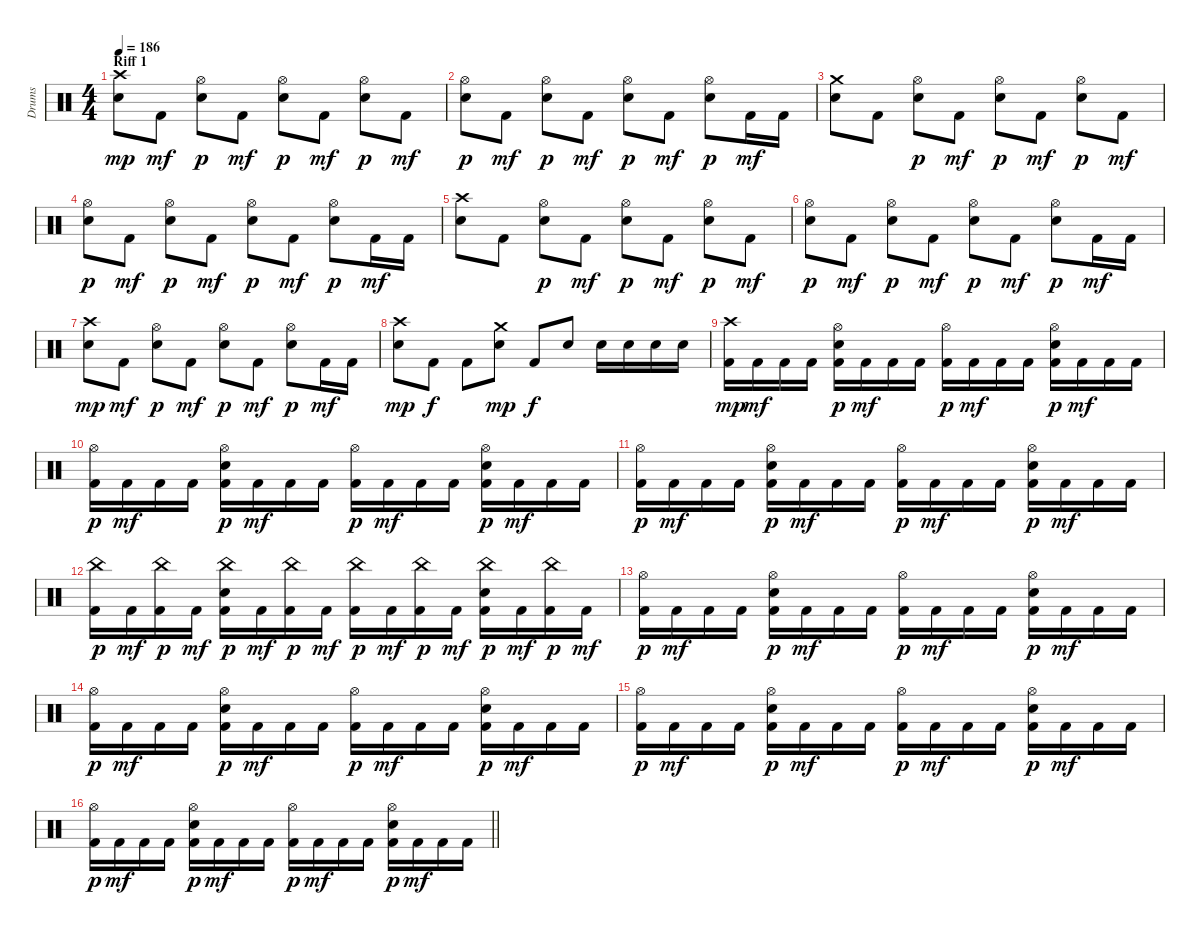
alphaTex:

\track ("Drums" "Drums") {instrument percussion}
\staff {score}
\articulation defaults
\ts (4 4)
\section ("" "Riff 1")
\tempo 186
\clef neutral
\ks c
("Crash high (hit)" "Snare (hit) 2").8{dy mp} "Kick (hit) 2".8{dy mf} ("Hi-Hat (open)" "Snare (hit) 2").8{dy p} "Kick (hit) 2".8{dy mf} ("Hi-Hat (open)" "Snare (hit) 2").8{dy p} "Kick (hit) 2".8{dy mf} ("Hi-Hat (open)" "Snare (hit) 2").8{dy p} "Kick (hit) 2".8{dy mf} |
("Hi-Hat (open)" "Snare (hit) 2").8{dy p} "Kick (hit) 2".8{dy mf} ("Hi-Hat (open)" "Snare (hit) 2").8{dy p} "Kick (hit) 2".8{dy mf} ("Hi-Hat (open)" "Snare (hit) 2").8{dy p} "Kick (hit) 2".8{dy mf} ("Hi-Hat (open)" "Snare (hit) 2").8{dy p} "Kick (hit) 2".16{dy mf} "Kick (hit) 2".16 |
("Crash medium (hit)" "Snare (hit) 2").8 "Kick (hit) 2".8 ("Hi-Hat (open)" "Snare (hit) 2").8{dy p} "Kick (hit) 2".8{dy mf} ("Hi-Hat (open)" "Snare (hit) 2").8{dy p} "Kick (hit) 2".8{dy mf} ("Hi-Hat (open)" "Snare (hit) 2").8{dy p} "Kick (hit) 2".8{dy mf} |
("Hi-Hat (open)" "Snare (hit) 2").8{dy p} "Kick (hit) 2".8{dy mf} ("Hi-Hat (open)" "Snare (hit) 2").8{dy p} "Kick (hit) 2".8{dy mf} ("Hi-Hat (open)" "Snare (hit) 2").8{dy p} "Kick (hit) 2".8{dy mf} ("Hi-Hat (open)" "Snare (hit) 2").8{dy p} "Kick (hit) 2".16{dy mf} "Kick (hit) 2".16 |
("Crash high (hit)" "Snare (hit) 2").8 "Kick (hit) 2".8 ("Hi-Hat (open)" "Snare (hit) 2").8{dy p} "Kick (hit) 2".8{dy mf} ("Hi-Hat (open)" "Snare (hit) 2").8{dy p} "Kick (hit) 2".8{dy mf} ("Hi-Hat (open)" "Snare (hit) 2").8{dy p} "Kick (hit) 2".8{dy mf} |
("Hi-Hat (open)" "Snare (hit) 2").8{dy p} "Kick (hit) 2".8{dy mf} ("Hi-Hat (open)" "Snare (hit) 2").8{dy p} "Kick (hit) 2".8{dy mf} ("Hi-Hat (open)" "Snare (hit) 2").8{dy p} "Kick (hit) 2".8{dy mf} ("Hi-Hat (open)" "Snare (hit) 2").8{dy p} "Kick (hit) 2".16{dy mf} "Kick (hit) 2".16 |
("Crash high (hit)" "Snare (hit) 2").8{dy mp} "Kick (hit) 2".8{dy mf} ("Hi-Hat (open)" "Snare (hit) 2").8{dy p} "Kick (hit) 2".8{dy mf} ("Hi-Hat (open)" "Snare (hit) 2").8{dy p} "Kick (hit) 2".8{dy mf} ("Hi-Hat (open)" "Snare (hit) 2").8{dy p} "Kick (hit) 2".16{dy mf} "Kick (hit) 2".16 |
("Crash high (hit)" "Snare (hit) 2").8{dy mp} "Kick (hit) 2".8{dy f} "Kick (hit) 2".8 ("Crash medium (hit)" "Snare (hit) 2").8{dy mp} "Kick (hit) 2".8{dy f} "Snare (hit) 2".8 "Snare (hit) 2".16 "Snare (hit) 2".16 "Snare (hit) 2".16 "Snare (hit) 2".16 |
("Kick (hit) 2" "Crash high (hit)").16{dy mp} "Kick (hit) 2".16{dy mf} "Kick (hit) 2".16 "Kick (hit) 2".16 ("Kick (hit) 2" "Hi-Hat (open)" "Snare (hit) 2").16{dy p} "Kick (hit) 2".16{dy mf} "Kick (hit) 2".16 "Kick (hit) 2".16 ("Kick (hit) 2" "Hi-Hat (open)").16{dy p} "Kick (hit) 2".16{dy mf} "Kick (hit) 2".16 "Kick (hit) 2".16 ("Kick (hit) 2" "Hi-Hat (open)" "Snare (hit) 2").16{dy p} "Kick (hit) 2".16{dy mf} "Kick (hit) 2".16 "Kick (hit) 2".16 |
("Kick (hit) 2" "Hi-Hat (open)").16{dy p} "Kick (hit) 2".16{dy mf} "Kick (hit) 2".16 "Kick (hit) 2".16 ("Kick (hit) 2" "Hi-Hat (open)" "Snare (hit) 2").16{dy p} "Kick (hit) 2".16{dy mf} "Kick (hit) 2".16 "Kick (hit) 2".16 ("Kick (hit) 2" "Hi-Hat (open)").16{dy p} "Kick (hit) 2".16{dy mf} "Kick (hit) 2".16 "Kick (hit) 2".16 ("Kick (hit) 2" "Hi-Hat (open)" "Snare (hit) 2").16{dy p} "Kick (hit) 2".16{dy mf} "Kick (hit) 2".16 "Kick (hit) 2".16 |
("Kick (hit) 2" "Hi-Hat (open)").16{dy p} "Kick (hit) 2".16{dy mf} "Kick (hit) 2".16 "Kick (hit) 2".16 ("Kick (hit) 2" "Hi-Hat (open)" "Snare (hit) 2").16{dy p} "Kick (hit) 2".16{dy mf} "Kick (hit) 2".16 "Kick (hit) 2".16 ("Kick (hit) 2" "Hi-Hat (open)").16{dy p} "Kick (hit) 2".16{dy mf} "Kick (hit) 2".16 "Kick (hit) 2".16 ("Kick (hit) 2" "Hi-Hat (open)" "Snare (hit) 2").16{dy p} "Kick (hit) 2".16{dy mf} "Kick (hit) 2".16 "Kick (hit) 2".16 |
("Kick (hit) 2" "China (hit)").16{dy p} "Kick (hit) 2".16{dy mf} ("Kick (hit) 2" "China (hit)").16{dy p} "Kick (hit) 2".16{dy mf} ("Kick (hit) 2" "China (hit)" "Snare (hit) 2").16{dy p} "Kick (hit) 2".16{dy mf} ("Kick (hit) 2" "China (hit)").16{dy p} "Kick (hit) 2".16{dy mf} ("Kick (hit) 2" "China (hit)").16{dy p} "Kick (hit) 2".16{dy mf} ("Kick (hit) 2" "China (hit)").16{dy p} "Kick (hit) 2".16{dy mf} ("Kick (hit) 2" "China (hit)" "Snare (hit) 2").16{dy p} "Kick (hit) 2".16{dy mf} ("Kick (hit) 2" "China (hit)").16{dy p} "Kick (hit) 2".16{dy mf} |
("Kick (hit) 2" "Hi-Hat (open)").16{dy p} "Kick (hit) 2".16{dy mf} "Kick (hit) 2".16 "Kick (hit) 2".16 ("Kick (hit) 2" "Hi-Hat (open)" "Snare (hit) 2").16{dy p} "Kick (hit) 2".16{dy mf} "Kick (hit) 2".16 "Kick (hit) 2".16 ("Kick (hit) 2" "Hi-Hat (open)").16{dy p} "Kick (hit) 2".16{dy mf} "Kick (hit) 2".16 "Kick (hit) 2".16 ("Kick (hit) 2" "Hi-Hat (open)" "Snare (hit) 2").16{dy p} "Kick (hit) 2".16{dy mf} "Kick (hit) 2".16 "Kick (hit) 2".16 |
("Kick (hit) 2" "Hi-Hat (open)").16{dy p} "Kick (hit) 2".16{dy mf} "Kick (hit) 2".16 "Kick (hit) 2".16 ("Kick (hit) 2" "Hi-Hat (open)" "Snare (hit) 2").16{dy p} "Kick (hit) 2".16{dy mf} "Kick (hit) 2".16 "Kick (hit) 2".16 ("Kick (hit) 2" "Hi-Hat (open)").16{dy p} "Kick (hit) 2".16{dy mf} "Kick (hit) 2".16 "Kick (hit) 2".16 ("Kick (hit) 2" "Hi-Hat (open)" "Snare (hit) 2").16{dy p} "Kick (hit) 2".16{dy mf} "Kick (hit) 2".16 "Kick (hit) 2".16 |
("Kick (hit) 2" "Hi-Hat (open)").16{dy p} "Kick (hit) 2".16{dy mf} "Kick (hit) 2".16 "Kick (hit) 2".16 ("Kick (hit) 2" "Hi-Hat (open)" "Snare (hit) 2").16{dy p} "Kick (hit) 2".16{dy mf} "Kick (hit) 2".16 "Kick (hit) 2".16 ("Kick (hit) 2" "Hi-Hat (open)").16{dy p} "Kick (hit) 2".16{dy mf} "Kick (hit) 2".16 "Kick (hit) 2".16 ("Kick (hit) 2" "Hi-Hat (open)" "Snare (hit) 2").16{dy p} "Kick (hit) 2".16{dy mf} "Kick (hit) 2".16 "Kick (hit) 2".16 |
\barLineRight lightlight
("Kick (hit) 2" "Hi-Hat (open)").16{dy p} "Kick (hit) 2".16{dy mf} "Kick (hit) 2".16 "Kick (hit) 2".16 ("Kick (hit) 2" "Hi-Hat (open)" "Snare (hit) 2").16{dy p} "Kick (hit) 2".16{dy mf} "Kick (hit) 2".16 "Kick (hit) 2".16 ("Kick (hit) 2" "Hi-Hat (open)").16{dy p} "Kick (hit) 2".16{dy mf} "Kick (hit) 2".16 "Kick (hit) 2".16 ("Kick (hit) 2" "Hi-Hat (open)" "Snare (hit) 2").16{dy p} "Kick (hit) 2".16{dy mf} "Kick (hit) 2".16 "Kick (hit) 2".16
